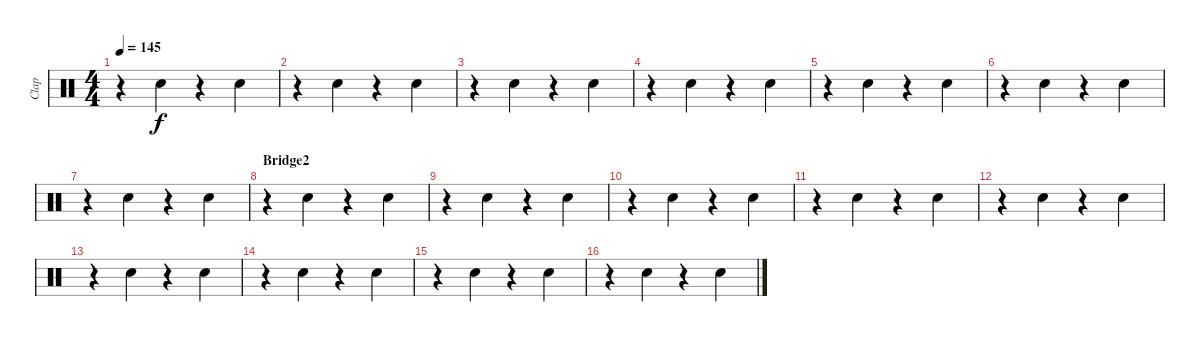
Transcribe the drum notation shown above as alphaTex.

\track ("Clap" "Clap") {instrument percussion}
\staff {score}
\articulation defaults
\ts (4 4)
\tempo 145
\clef neutral
\ks c
r.4{dy f} "Hand Clap (hit)".4 r.4 "Hand Clap (hit)".4 |
r.4 "Hand Clap (hit)".4 r.4 "Hand Clap (hit)".4 |
r.4 "Hand Clap (hit)".4 r.4 "Hand Clap (hit)".4 |
r.4 "Hand Clap (hit)".4 r.4 "Hand Clap (hit)".4 |
r.4 "Hand Clap (hit)".4 r.4 "Hand Clap (hit)".4 |
r.4 "Hand Clap (hit)".4 r.4 "Hand Clap (hit)".4 |
r.4 "Hand Clap (hit)".4 r.4 "Hand Clap (hit)".4 |
\section ("" "Bridge2")
r.4 "Hand Clap (hit)".4 r.4 "Hand Clap (hit)".4 |
r.4 "Hand Clap (hit)".4 r.4 "Hand Clap (hit)".4 |
r.4 "Hand Clap (hit)".4 r.4 "Hand Clap (hit)".4 |
r.4 "Hand Clap (hit)".4 r.4 "Hand Clap (hit)".4 |
r.4 "Hand Clap (hit)".4 r.4 "Hand Clap (hit)".4 |
r.4 "Hand Clap (hit)".4 r.4 "Hand Clap (hit)".4 |
r.4 "Hand Clap (hit)".4 r.4 "Hand Clap (hit)".4 |
r.4 "Hand Clap (hit)".4 r.4 "Hand Clap (hit)".4 |
r.4 "Hand Clap (hit)".4 r.4 "Hand Clap (hit)".4
